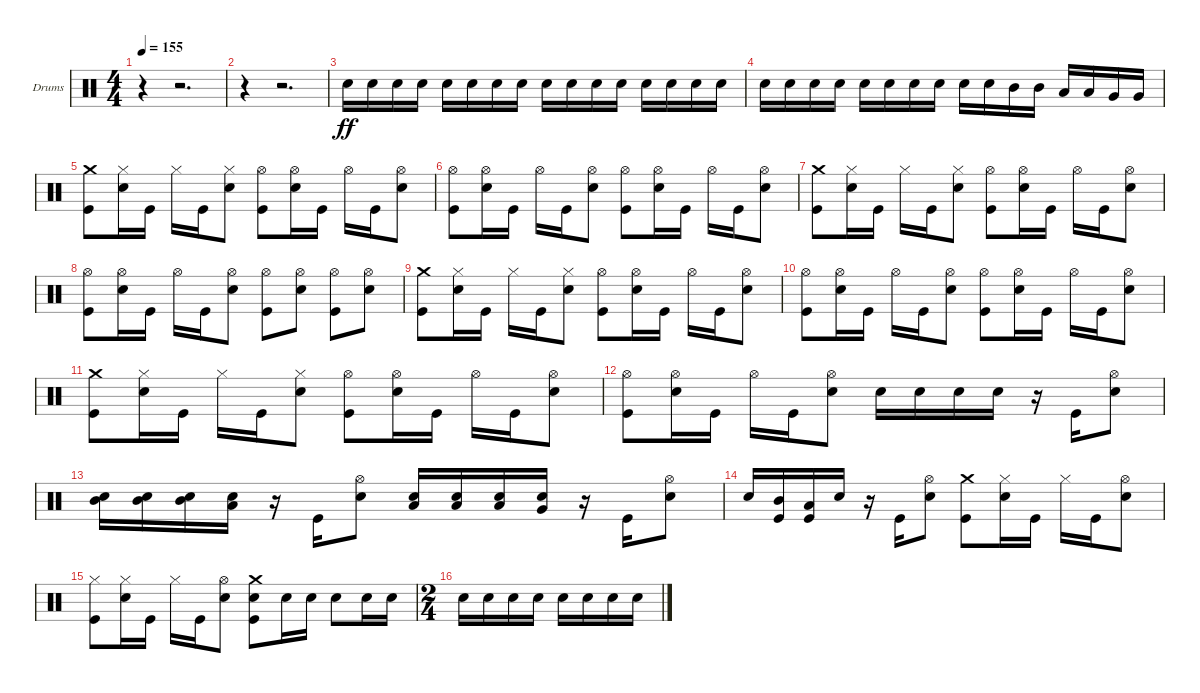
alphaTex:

\defaultSystemsLayout 4
\bracketExtendMode groupsimilarinstruments
\firstSystemTrackNameOrientation horizontal
\otherSystemsTrackNameOrientation horizontal
\track ("Drums - Brandon Barnes" "Drums") {instrument percussion}
\staff {score}
\articulation defaults
\ts (4 4)
\tempo 155
\clef neutral
\scale
0.474178
\ks c
r.4{dy ff} r.2{d} |
\scale
0.262911 r.4 r.2{d} |
\scale
0.262911 "Snare (hit) 2".16 "Snare (hit) 2".16 "Snare (hit) 2".16 "Snare (hit) 2".16 "Snare (hit) 2".16 "Snare (hit) 2".16 "Snare (hit) 2".16 "Snare (hit) 2".16 "Snare (hit) 2".16 "Snare (hit) 2".16 "Snare (hit) 2".16 "Snare (hit) 2".16 "Snare (hit) 2".16 "Snare (hit) 2".16 "Snare (hit) 2".16 "Snare (hit) 2".16 |
\scale
0.333333 "Snare (hit) 2".16 "Snare (hit) 2".16 "Snare (hit) 2".16 "Snare (hit) 2".16 "Snare (hit) 2".16 "Snare (hit) 2".16 "Snare (hit) 2".16 "Snare (hit) 2".16 "Snare (hit) 2".16 "Snare (hit) 2".16 "Mid Tom (hit)".16 "Mid Tom (hit)".16 "Low Tom (hit)".16 "Low Tom (hit)".16 "Very Low Tom (hit)".16 "Very Low Tom (hit)".16 |
\scale
0.333333 ("Kick (hit)" "Crash medium (hit)").8 ("Snare (hit) 2" "Hi-Hat (closed)").16 "Kick (hit)".16 "Hi-Hat (closed)".16 "Kick (hit)".16 ("Snare (hit) 2" "Hi-Hat (closed)").8 ("Kick (hit)" "Hi-Hat (open)").8 ("Snare (hit) 2" "Hi-Hat (open)").16 "Kick (hit)".16 "Hi-Hat (open)".16 "Kick (hit)".16 ("Snare (hit) 2" "Hi-Hat (open)").8 |
\scale
0.333333 ("Kick (hit)" "Hi-Hat (open)").8 ("Snare (hit) 2" "Hi-Hat (open)").16 "Kick (hit)".16 "Hi-Hat (open)".16 "Kick (hit)".16 ("Snare (hit) 2" "Hi-Hat (open)").8 ("Kick (hit)" "Hi-Hat (open)").8 ("Snare (hit) 2" "Hi-Hat (open)").16 "Kick (hit)".16 "Hi-Hat (open)".16 "Kick (hit)".16 ("Snare (hit) 2" "Hi-Hat (open)").8 |
\scale
0.333333 ("Kick (hit)" "Crash medium (hit)").8 ("Snare (hit) 2" "Hi-Hat (closed)").16 "Kick (hit)".16 "Hi-Hat (closed)".16 "Kick (hit)".16 ("Snare (hit) 2" "Hi-Hat (closed)").8 ("Kick (hit)" "Hi-Hat (open)").8 ("Snare (hit) 2" "Hi-Hat (open)").16 "Kick (hit)".16 "Hi-Hat (open)".16 "Kick (hit)".16 ("Snare (hit) 2" "Hi-Hat (open)").8 |
\scale
0.333333 ("Kick (hit)" "Hi-Hat (open)").8 ("Snare (hit) 2" "Hi-Hat (open)").16 "Kick (hit)".16 "Hi-Hat (open)".16 "Kick (hit)".16 ("Snare (hit) 2" "Hi-Hat (open)").8 ("Kick (hit)" "Hi-Hat (open)").8 ("Snare (hit) 2" "Hi-Hat (open)").8 ("Kick (hit)" "Hi-Hat (open)").8 ("Snare (hit) 2" "Hi-Hat (open)").8 |
\scale
0.333333 ("Kick (hit)" "Crash medium (hit)").8 ("Snare (hit) 2" "Hi-Hat (closed)").16 "Kick (hit)".16 "Hi-Hat (closed)".16 "Kick (hit)".16 ("Snare (hit) 2" "Hi-Hat (closed)").8 ("Kick (hit)" "Hi-Hat (open)").8 ("Snare (hit) 2" "Hi-Hat (open)").16 "Kick (hit)".16 "Hi-Hat (open)".16 "Kick (hit)".16 ("Snare (hit) 2" "Hi-Hat (open)").8 |
\scale
0.333333 ("Kick (hit)" "Hi-Hat (open)").8 ("Snare (hit) 2" "Hi-Hat (open)").16 "Kick (hit)".16 "Hi-Hat (open)".16 "Kick (hit)".16 ("Snare (hit) 2" "Hi-Hat (open)").8 ("Kick (hit)" "Hi-Hat (open)").8 ("Snare (hit) 2" "Hi-Hat (open)").16 "Kick (hit)".16 "Hi-Hat (open)".16 "Kick (hit)".16 ("Snare (hit) 2" "Hi-Hat (open)").8 |
\scale
0.333333 ("Kick (hit)" "Crash medium (hit)").8 ("Snare (hit) 2" "Hi-Hat (closed)").16 "Kick (hit)".16 "Hi-Hat (closed)".16 "Kick (hit)".16 ("Snare (hit) 2" "Hi-Hat (closed)").8 ("Kick (hit)" "Hi-Hat (open)").8 ("Snare (hit) 2" "Hi-Hat (open)").16 "Kick (hit)".16 "Hi-Hat (open)".16 "Kick (hit)".16 ("Snare (hit) 2" "Hi-Hat (open)").8 |
\scale
0.333333 ("Kick (hit)" "Hi-Hat (open)").8 ("Snare (hit) 2" "Hi-Hat (open)").16 "Kick (hit)".16 "Hi-Hat (open)".16 "Kick (hit)".16 ("Snare (hit) 2" "Hi-Hat (open)").8 "Snare (hit) 2".16 "Snare (hit) 2".16 "Snare (hit) 2".16 "Snare (hit) 2".16 r.16 "Kick (hit)".16 ("Snare (hit) 2" "Hi-Hat (open)").8 |
\scale
0.333333 ("Snare (hit) 2" "Mid Tom (hit)").16 ("Snare (hit) 2" "Mid Tom (hit)").16 ("Snare (hit) 2" "Mid Tom (hit)").16 ("Snare (hit) 2" "Low Tom (hit)").16 r.16 "Kick (hit)".16 ("Snare (hit) 2" "Hi-Hat (open)").8 ("Snare (hit) 2" "Low Tom (hit)").16 ("Snare (hit) 2" "Low Tom (hit)").16 ("Snare (hit) 2" "Low Tom (hit)").16 ("Snare (hit) 2" "Very Low Tom (hit)").16 r.16 "Kick (hit)".16 ("Snare (hit) 2" "Hi-Hat (open)").8 |
\scale
0.333333 "Snare (hit) 2".16 ("Mid Tom (hit)" "Kick (hit)").16 ("Low Tom (hit)" "Kick (hit)").16 "Snare (hit) 2".16 r.16 "Kick (hit)".16 ("Snare (hit) 2" "Hi-Hat (open)").8 ("Kick (hit)" "Crash medium (hit)").8 ("Snare (hit) 2" "Hi-Hat (closed)").16 "Kick (hit)".16 "Hi-Hat (closed)".16 "Kick (hit)".16 ("Snare (hit) 2" "Hi-Hat (open)").8 |
\scale
0.333333 ("Kick (hit)" "Hi-Hat (closed)").8 ("Snare (hit) 2" "Hi-Hat (closed)").16 "Kick (hit)".16 "Hi-Hat (closed)".16 "Kick (hit)".16 ("Snare (hit) 2" "Hi-Hat (open)").8 ("Snare (hit) 2" "Crash medium (hit)" "Kick (hit)").8 "Snare (hit) 2".16 "Snare (hit) 2".16 "Snare (hit) 2".8 "Snare (hit) 2".16 "Snare (hit) 2".16 |
\ts (2 4)
\scale
0.391473 "Snare (hit) 2".16 "Snare (hit) 2".16 "Snare (hit) 2".16 "Snare (hit) 2".16 "Snare (hit) 2".16 "Snare (hit) 2".16 "Snare (hit) 2".16 "Snare (hit) 2".16
